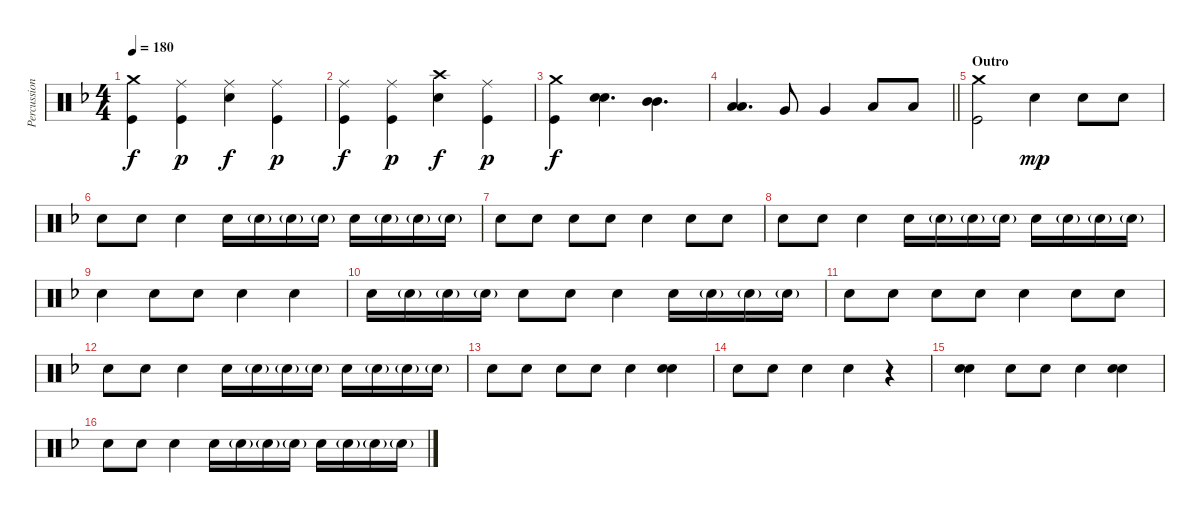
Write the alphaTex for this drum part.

\track ("Percussion" "Percussion") {instrument percussion}
\staff {score}
\articulation defaults
\ts (4 4)
\tempo 180
\clef neutral
\ks f
("Crash medium (hit)" "Kick (hit)").4{dy f} ("Ride (middle)" "Kick (hit)").4{dy p} ("Ride (middle)" "Snare (hit) 2").4{dy f} ("Ride (middle)" "Kick (hit)").4{dy p} |
("Ride (middle)" "Kick (hit)").4{dy f} ("Ride (middle)" "Kick (hit)").4{dy p} ("Crash high (hit)" "Snare (hit) 2").4{dy f} ("Ride (middle)" "Kick (hit)").4{dy p} |
("Crash medium (hit)" "Kick (hit)").4{dy f} ("Snare (hit) 2" "Snare (hit) 2").4{d bd 120} ("Mid Tom (hit)" "Mid Tom (hit)").4{d bd 240} |
\barLineRight lightlight
("Low Tom (hit)" "Low Tom (hit)").4{d bd 240} "Very Low Tom (hit)".8 "Very Low Tom (hit)".4 "Low Floor Tom (hit)".8 "Low Floor Tom (hit)".8 |
\section ("" "Outro")
("Crash medium (hit)" "Kick (hit)").2 "Snare (hit) 2".4{dy mp} "Snare (hit) 2".8 "Snare (hit) 2".8 |
"Snare (hit) 2".8 "Snare (hit) 2".8 "Snare (hit) 2".4 "Snare (hit) 2".16 "Snare (hit) 2"{g}.16 "Snare (hit) 2"{g}.16 "Snare (hit) 2"{g}.16 "Snare (hit) 2".16 "Snare (hit) 2"{g}.16 "Snare (hit) 2"{g}.16 "Snare (hit) 2"{g}.16 |
"Snare (hit) 2".8 "Snare (hit) 2".8 "Snare (hit) 2".8 "Snare (hit) 2".8 "Snare (hit) 2".4 "Snare (hit) 2".8 "Snare (hit) 2".8 |
"Snare (hit) 2".8 "Snare (hit) 2".8 "Snare (hit) 2".4 "Snare (hit) 2".16 "Snare (hit) 2"{g}.16 "Snare (hit) 2"{g}.16 "Snare (hit) 2"{g}.16 "Snare (hit) 2".16 "Snare (hit) 2"{g}.16 "Snare (hit) 2"{g}.16 "Snare (hit) 2"{g}.16 |
"Snare (hit) 2".4 "Snare (hit) 2".8 "Snare (hit) 2".8 "Snare (hit) 2".4 "Snare (hit) 2".4 |
"Snare (hit) 2".16 "Snare (hit) 2"{g}.16 "Snare (hit) 2"{g}.16 "Snare (hit) 2"{g}.16 "Snare (hit) 2".8 "Snare (hit) 2".8 "Snare (hit) 2".4 "Snare (hit) 2".16 "Snare (hit) 2"{g}.16 "Snare (hit) 2"{g}.16 "Snare (hit) 2"{g}.16 |
"Snare (hit) 2".8 "Snare (hit) 2".8 "Snare (hit) 2".8 "Snare (hit) 2".8 "Snare (hit) 2".4 "Snare (hit) 2".8 "Snare (hit) 2".8 |
"Snare (hit) 2".8 "Snare (hit) 2".8 "Snare (hit) 2".4 "Snare (hit) 2".16 "Snare (hit) 2"{g}.16 "Snare (hit) 2"{g}.16 "Snare (hit) 2"{g}.16 "Snare (hit) 2".16 "Snare (hit) 2"{g}.16 "Snare (hit) 2"{g}.16 "Snare (hit) 2"{g}.16 |
"Snare (hit) 2".8 "Snare (hit) 2".8 "Snare (hit) 2".8 "Snare (hit) 2".8 "Snare (hit) 2".4 ("Snare (hit) 2" "Snare (hit) 2").4{bd 240} |
"Snare (hit) 2".8 "Snare (hit) 2".8 "Snare (hit) 2".4 "Snare (hit) 2".4 r.4 |
("Snare (hit) 2" "Snare (hit) 2").4{bd 240} "Snare (hit) 2".8 "Snare (hit) 2".8 "Snare (hit) 2".4 ("Snare (hit) 2" "Snare (hit) 2").4{bd 240} |
"Snare (hit) 2".8 "Snare (hit) 2".8 "Snare (hit) 2".4 "Snare (hit) 2".16 "Snare (hit) 2"{g}.16 "Snare (hit) 2"{g}.16 "Snare (hit) 2"{g}.16 "Snare (hit) 2".16 "Snare (hit) 2"{g}.16 "Snare (hit) 2"{g}.16 "Snare (hit) 2"{g}.16
